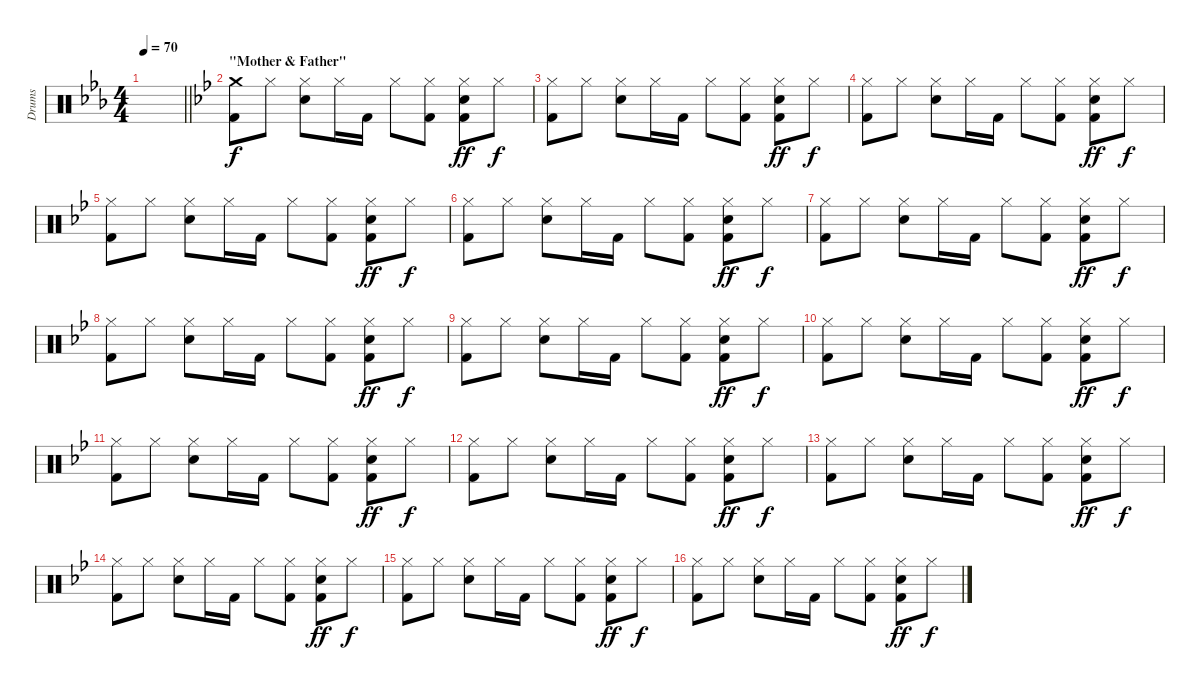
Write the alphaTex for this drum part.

\track ("Drums" "Drums") {instrument percussion}
\staff {score}
\articulation defaults
\ts (4 4)
\tempo 70
\clef neutral
\barLineRight lightlight
\ks cminor
|
\section ("" "\"Mother & Father\"")
\ks gminor
("Kick (hit) 2" "Crash medium (hit)").8{dy f volume 9} "Hi-Hat (closed)".8 ("Electric Snare (hit)" "Hi-Hat (closed)").8 "Hi-Hat (closed)".16 "Kick (hit) 2".16 "Hi-Hat (closed)".8 ("Hi-Hat (closed)" "Kick (hit) 2").8 ("Hi-Hat (closed)" "Electric Snare (hit)" "Kick (hit) 2").8{dy ff} "Hi-Hat (closed)".8{dy f} |
("Kick (hit) 2" "Hi-Hat (closed)").8 "Hi-Hat (closed)".8 ("Electric Snare (hit)" "Hi-Hat (closed)").8 "Hi-Hat (closed)".16 "Kick (hit) 2".16 "Hi-Hat (closed)".8 ("Hi-Hat (closed)" "Kick (hit) 2").8 ("Hi-Hat (closed)" "Electric Snare (hit)" "Kick (hit) 2").8{dy ff} "Hi-Hat (closed)".8{dy f} |
("Kick (hit) 2" "Hi-Hat (closed)").8 "Hi-Hat (closed)".8 ("Electric Snare (hit)" "Hi-Hat (closed)").8 "Hi-Hat (closed)".16 "Kick (hit) 2".16 "Hi-Hat (closed)".8 ("Hi-Hat (closed)" "Kick (hit) 2").8 ("Hi-Hat (closed)" "Electric Snare (hit)" "Kick (hit) 2").8{dy ff} "Hi-Hat (closed)".8{dy f} |
("Kick (hit) 2" "Hi-Hat (closed)").8 "Hi-Hat (closed)".8 ("Electric Snare (hit)" "Hi-Hat (closed)").8 "Hi-Hat (closed)".16 "Kick (hit) 2".16 "Hi-Hat (closed)".8 ("Hi-Hat (closed)" "Kick (hit) 2").8 ("Hi-Hat (closed)" "Electric Snare (hit)" "Kick (hit) 2").8{dy ff} "Hi-Hat (closed)".8{dy f} |
("Kick (hit) 2" "Hi-Hat (closed)").8 "Hi-Hat (closed)".8 ("Electric Snare (hit)" "Hi-Hat (closed)").8 "Hi-Hat (closed)".16 "Kick (hit) 2".16 "Hi-Hat (closed)".8 ("Hi-Hat (closed)" "Kick (hit) 2").8 ("Hi-Hat (closed)" "Electric Snare (hit)" "Kick (hit) 2").8{dy ff} "Hi-Hat (closed)".8{dy f} |
("Kick (hit) 2" "Hi-Hat (closed)").8 "Hi-Hat (closed)".8 ("Electric Snare (hit)" "Hi-Hat (closed)").8 "Hi-Hat (closed)".16 "Kick (hit) 2".16 "Hi-Hat (closed)".8 ("Hi-Hat (closed)" "Kick (hit) 2").8 ("Hi-Hat (closed)" "Electric Snare (hit)" "Kick (hit) 2").8{dy ff} "Hi-Hat (closed)".8{dy f} |
("Kick (hit) 2" "Hi-Hat (closed)").8 "Hi-Hat (closed)".8 ("Electric Snare (hit)" "Hi-Hat (closed)").8 "Hi-Hat (closed)".16 "Kick (hit) 2".16 "Hi-Hat (closed)".8 ("Hi-Hat (closed)" "Kick (hit) 2").8 ("Hi-Hat (closed)" "Electric Snare (hit)" "Kick (hit) 2").8{dy ff} "Hi-Hat (closed)".8{dy f} |
("Kick (hit) 2" "Hi-Hat (closed)").8 "Hi-Hat (closed)".8 ("Electric Snare (hit)" "Hi-Hat (closed)").8 "Hi-Hat (closed)".16 "Kick (hit) 2".16 "Hi-Hat (closed)".8 ("Hi-Hat (closed)" "Kick (hit) 2").8 ("Hi-Hat (closed)" "Electric Snare (hit)" "Kick (hit) 2").8{dy ff} "Hi-Hat (closed)".8{dy f} |
("Kick (hit) 2" "Hi-Hat (closed)").8 "Hi-Hat (closed)".8 ("Electric Snare (hit)" "Hi-Hat (closed)").8 "Hi-Hat (closed)".16 "Kick (hit) 2".16 "Hi-Hat (closed)".8 ("Hi-Hat (closed)" "Kick (hit) 2").8 ("Hi-Hat (closed)" "Electric Snare (hit)" "Kick (hit) 2").8{dy ff} "Hi-Hat (closed)".8{dy f} |
("Kick (hit) 2" "Hi-Hat (closed)").8 "Hi-Hat (closed)".8 ("Electric Snare (hit)" "Hi-Hat (closed)").8 "Hi-Hat (closed)".16 "Kick (hit) 2".16 "Hi-Hat (closed)".8 ("Hi-Hat (closed)" "Kick (hit) 2").8 ("Hi-Hat (closed)" "Electric Snare (hit)" "Kick (hit) 2").8{dy ff} "Hi-Hat (closed)".8{dy f} |
("Kick (hit) 2" "Hi-Hat (closed)").8 "Hi-Hat (closed)".8 ("Electric Snare (hit)" "Hi-Hat (closed)").8 "Hi-Hat (closed)".16 "Kick (hit) 2".16 "Hi-Hat (closed)".8 ("Hi-Hat (closed)" "Kick (hit) 2").8 ("Hi-Hat (closed)" "Electric Snare (hit)" "Kick (hit) 2").8{dy ff} "Hi-Hat (closed)".8{dy f} |
("Kick (hit) 2" "Hi-Hat (closed)").8 "Hi-Hat (closed)".8 ("Electric Snare (hit)" "Hi-Hat (closed)").8 "Hi-Hat (closed)".16 "Kick (hit) 2".16 "Hi-Hat (closed)".8 ("Hi-Hat (closed)" "Kick (hit) 2").8 ("Hi-Hat (closed)" "Electric Snare (hit)" "Kick (hit) 2").8{dy ff} "Hi-Hat (closed)".8{dy f} |
("Kick (hit) 2" "Hi-Hat (closed)").8 "Hi-Hat (closed)".8 ("Electric Snare (hit)" "Hi-Hat (closed)").8 "Hi-Hat (closed)".16 "Kick (hit) 2".16 "Hi-Hat (closed)".8 ("Hi-Hat (closed)" "Kick (hit) 2").8 ("Hi-Hat (closed)" "Electric Snare (hit)" "Kick (hit) 2").8{dy ff} "Hi-Hat (closed)".8{dy f} |
("Kick (hit) 2" "Hi-Hat (closed)").8 "Hi-Hat (closed)".8 ("Electric Snare (hit)" "Hi-Hat (closed)").8 "Hi-Hat (closed)".16 "Kick (hit) 2".16 "Hi-Hat (closed)".8 ("Hi-Hat (closed)" "Kick (hit) 2").8 ("Hi-Hat (closed)" "Electric Snare (hit)" "Kick (hit) 2").8{dy ff} "Hi-Hat (closed)".8{dy f} |
("Kick (hit) 2" "Hi-Hat (closed)").8 "Hi-Hat (closed)".8 ("Electric Snare (hit)" "Hi-Hat (closed)").8 "Hi-Hat (closed)".16 "Kick (hit) 2".16 "Hi-Hat (closed)".8 ("Hi-Hat (closed)" "Kick (hit) 2").8 ("Hi-Hat (closed)" "Electric Snare (hit)" "Kick (hit) 2").8{dy ff} "Hi-Hat (closed)".8{dy f}
